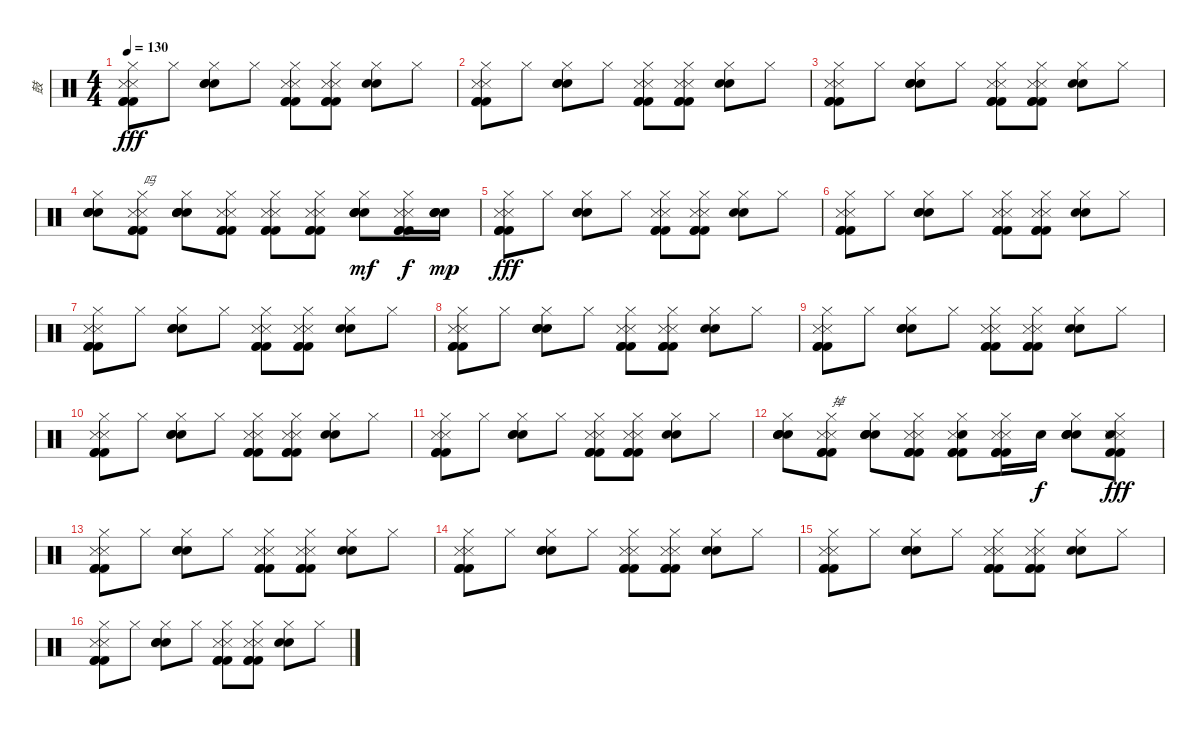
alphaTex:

\track ("鼓" "鼓") {instrument percussion}
\staff {score}
\articulation defaults
\ts (4 4)
\tempo 130
\clef neutral
\ks c
("Metronome (hit)" "Metronome (hit)" "Kick (hit) 2" "Kick (hit) 2" "Kick (hit) 2" "Hi-Hat (closed)").8{dy fff} "Hi-Hat (closed)".8 ("Electric Snare (hit)" "Electric Snare (hit)" "Electric Snare (hit)" "Hi-Hat (closed)").8 "Hi-Hat (closed)".8 ("Metronome (hit)" "Metronome (hit)" "Kick (hit) 2" "Kick (hit) 2" "Kick (hit) 2" "Hi-Hat (closed)").8 ("Metronome (hit)" "Metronome (hit)" "Kick (hit) 2" "Kick (hit) 2" "Kick (hit) 2" "Hi-Hat (closed)").8 ("Electric Snare (hit)" "Electric Snare (hit)" "Hi-Hat (closed)").8 "Hi-Hat (closed)".8 |
("Metronome (hit)" "Metronome (hit)" "Kick (hit) 2" "Kick (hit) 2" "Kick (hit) 2" "Hi-Hat (closed)").8 "Hi-Hat (closed)".8 ("Electric Snare (hit)" "Electric Snare (hit)" "Electric Snare (hit)" "Hi-Hat (closed)").8 "Hi-Hat (closed)".8 ("Metronome (hit)" "Metronome (hit)" "Kick (hit) 2" "Kick (hit) 2" "Kick (hit) 2" "Hi-Hat (closed)").8 ("Metronome (hit)" "Metronome (hit)" "Kick (hit) 2" "Kick (hit) 2" "Kick (hit) 2" "Hi-Hat (closed)").8 ("Electric Snare (hit)" "Electric Snare (hit)" "Hi-Hat (closed)").8 "Hi-Hat (closed)".8 |
("Metronome (hit)" "Metronome (hit)" "Kick (hit) 2" "Kick (hit) 2" "Kick (hit) 2" "Hi-Hat (closed)").8 "Hi-Hat (closed)".8 ("Electric Snare (hit)" "Electric Snare (hit)" "Electric Snare (hit)" "Hi-Hat (closed)").8 "Hi-Hat (closed)".8 ("Metronome (hit)" "Metronome (hit)" "Kick (hit) 2" "Kick (hit) 2" "Kick (hit) 2" "Hi-Hat (closed)").8 ("Metronome (hit)" "Metronome (hit)" "Kick (hit) 2" "Kick (hit) 2" "Kick (hit) 2" "Hi-Hat (closed)").8 ("Electric Snare (hit)" "Electric Snare (hit)" "Hi-Hat (closed)").8 "Hi-Hat (closed)".8 |
("Hand Clap (hit)" "Snare (hit) 2" "Snare (hit) 2" "Snare (hit) 2" "Hi-Hat (closed)").8 ("Metronome (hit)" "Metronome (hit)" "Kick (hit) 2" "Kick (hit) 2" "Kick (hit) 2" "Hi-Hat (closed)").8{txt "吗"} ("Hand Clap (hit)" "Snare (hit) 2" "Snare (hit) 2" "Snare (hit) 2" "Hi-Hat (closed)").8 ("Metronome (hit)" "Metronome (hit)" "Kick (hit) 2" "Kick (hit) 2" "Kick (hit) 2" "Hi-Hat (closed)").8 ("Metronome (hit)" "Metronome (hit)" "Kick (hit) 2" "Kick (hit) 2" "Kick (hit) 2" "Hi-Hat (closed)").8 ("Metronome (hit)" "Metronome (hit)" "Kick (hit) 2" "Kick (hit) 2" "Kick (hit) 2" "Hi-Hat (closed)").8 ("Hand Clap (hit)" "Snare (hit) 2" "Snare (hit) 2" "Snare (hit) 2" "Hi-Hat (closed)").8{dy mf} ("Metronome (hit)" "Metronome (hit)" "Kick (hit) 2" "Kick (hit) 2" "Kick (hit) 2" "Hi-Hat (closed)").16{dy f} ("Hand Clap (hit)" "Snare (hit) 2" "Snare (hit) 2" "Snare (hit) 2").16{dy mp} |
("Metronome (hit)" "Metronome (hit)" "Kick (hit) 2" "Kick (hit) 2" "Kick (hit) 2" "Hi-Hat (closed)").8{dy fff} "Hi-Hat (closed)".8 ("Electric Snare (hit)" "Electric Snare (hit)" "Electric Snare (hit)" "Hi-Hat (closed)").8 "Hi-Hat (closed)".8 ("Metronome (hit)" "Metronome (hit)" "Kick (hit) 2" "Kick (hit) 2" "Kick (hit) 2" "Hi-Hat (closed)").8 ("Metronome (hit)" "Metronome (hit)" "Kick (hit) 2" "Kick (hit) 2" "Kick (hit) 2" "Hi-Hat (closed)").8 ("Electric Snare (hit)" "Electric Snare (hit)" "Hi-Hat (closed)").8 "Hi-Hat (closed)".8 |
("Metronome (hit)" "Metronome (hit)" "Kick (hit) 2" "Kick (hit) 2" "Kick (hit) 2" "Hi-Hat (closed)").8 "Hi-Hat (closed)".8 ("Electric Snare (hit)" "Electric Snare (hit)" "Electric Snare (hit)" "Hi-Hat (closed)").8 "Hi-Hat (closed)".8 ("Metronome (hit)" "Metronome (hit)" "Kick (hit) 2" "Kick (hit) 2" "Kick (hit) 2" "Hi-Hat (closed)").8 ("Metronome (hit)" "Metronome (hit)" "Kick (hit) 2" "Kick (hit) 2" "Kick (hit) 2" "Hi-Hat (closed)").8 ("Electric Snare (hit)" "Electric Snare (hit)" "Hi-Hat (closed)").8 "Hi-Hat (closed)".8 |
("Metronome (hit)" "Metronome (hit)" "Kick (hit) 2" "Kick (hit) 2" "Kick (hit) 2" "Hi-Hat (closed)").8 "Hi-Hat (closed)".8 ("Electric Snare (hit)" "Electric Snare (hit)" "Electric Snare (hit)" "Hi-Hat (closed)").8 "Hi-Hat (closed)".8 ("Metronome (hit)" "Metronome (hit)" "Kick (hit) 2" "Kick (hit) 2" "Kick (hit) 2" "Hi-Hat (closed)").8 ("Metronome (hit)" "Metronome (hit)" "Kick (hit) 2" "Kick (hit) 2" "Kick (hit) 2" "Hi-Hat (closed)").8 ("Electric Snare (hit)" "Electric Snare (hit)" "Hi-Hat (closed)").8 "Hi-Hat (closed)".8 |
("Metronome (hit)" "Metronome (hit)" "Kick (hit) 2" "Kick (hit) 2" "Kick (hit) 2" "Hi-Hat (closed)").8 "Hi-Hat (closed)".8 ("Electric Snare (hit)" "Electric Snare (hit)" "Electric Snare (hit)" "Hi-Hat (closed)").8 "Hi-Hat (closed)".8 ("Metronome (hit)" "Metronome (hit)" "Kick (hit) 2" "Kick (hit) 2" "Kick (hit) 2" "Hi-Hat (closed)").8 ("Metronome (hit)" "Metronome (hit)" "Kick (hit) 2" "Kick (hit) 2" "Kick (hit) 2" "Hi-Hat (closed)").8 ("Electric Snare (hit)" "Electric Snare (hit)" "Hi-Hat (closed)").8 "Hi-Hat (closed)".8 |
("Metronome (hit)" "Metronome (hit)" "Kick (hit) 2" "Kick (hit) 2" "Kick (hit) 2" "Hi-Hat (closed)").8 "Hi-Hat (closed)".8 ("Electric Snare (hit)" "Electric Snare (hit)" "Electric Snare (hit)" "Hi-Hat (closed)").8 "Hi-Hat (closed)".8 ("Metronome (hit)" "Metronome (hit)" "Kick (hit) 2" "Kick (hit) 2" "Kick (hit) 2" "Hi-Hat (closed)").8 ("Metronome (hit)" "Metronome (hit)" "Kick (hit) 2" "Kick (hit) 2" "Kick (hit) 2" "Hi-Hat (closed)").8 ("Electric Snare (hit)" "Electric Snare (hit)" "Hi-Hat (closed)").8 "Hi-Hat (closed)".8 |
("Metronome (hit)" "Metronome (hit)" "Kick (hit) 2" "Kick (hit) 2" "Kick (hit) 2" "Hi-Hat (closed)").8 "Hi-Hat (closed)".8 ("Electric Snare (hit)" "Electric Snare (hit)" "Electric Snare (hit)" "Hi-Hat (closed)").8 "Hi-Hat (closed)".8 ("Metronome (hit)" "Metronome (hit)" "Kick (hit) 2" "Kick (hit) 2" "Kick (hit) 2" "Hi-Hat (closed)").8 ("Metronome (hit)" "Metronome (hit)" "Kick (hit) 2" "Kick (hit) 2" "Kick (hit) 2" "Hi-Hat (closed)").8 ("Electric Snare (hit)" "Electric Snare (hit)" "Hi-Hat (closed)").8 "Hi-Hat (closed)".8 |
("Metronome (hit)" "Metronome (hit)" "Kick (hit) 2" "Kick (hit) 2" "Kick (hit) 2" "Hi-Hat (closed)").8 "Hi-Hat (closed)".8 ("Electric Snare (hit)" "Electric Snare (hit)" "Electric Snare (hit)" "Hi-Hat (closed)").8 "Hi-Hat (closed)".8 ("Metronome (hit)" "Metronome (hit)" "Kick (hit) 2" "Kick (hit) 2" "Kick (hit) 2" "Hi-Hat (closed)").8 ("Metronome (hit)" "Metronome (hit)" "Kick (hit) 2" "Kick (hit) 2" "Kick (hit) 2" "Hi-Hat (closed)").8 ("Electric Snare (hit)" "Electric Snare (hit)" "Hi-Hat (closed)").8 "Hi-Hat (closed)".8 |
("Hand Clap (hit)" "Snare (hit) 2" "Snare (hit) 2" "Snare (hit) 2" "Hi-Hat (closed)").8 ("Metronome (hit)" "Metronome (hit)" "Kick (hit) 2" "Kick (hit) 2" "Kick (hit) 2" "Hi-Hat (closed)").8{txt "掉"} ("Hand Clap (hit)" "Snare (hit) 2" "Snare (hit) 2" "Snare (hit) 2" "Hi-Hat (closed)").8 ("Metronome (hit)" "Metronome (hit)" "Kick (hit) 2" "Kick (hit) 2" "Kick (hit) 2" "Hi-Hat (closed)").8 ("Hand Clap (hit)" "Metronome (hit)" "Kick (hit) 2" "Kick (hit) 2" "Kick (hit) 2" "Hi-Hat (closed)").8 ("Metronome (hit)" "Metronome (hit)" "Kick (hit) 2" "Kick (hit) 2" "Kick (hit) 2" "Hi-Hat (closed)").16 "Hand Clap (hit)".16{dy f} ("Hand Clap (hit)" "Snare (hit) 2" "Snare (hit) 2" "Snare (hit) 2" "Hi-Hat (closed)").8 ("Metronome (hit)" "Metronome (hit)" "Kick (hit) 2" "Kick (hit) 2" "Hand Clap (hit)" "Hi-Hat (closed)").8{dy fff} |
("Metronome (hit)" "Metronome (hit)" "Kick (hit) 2" "Kick (hit) 2" "Kick (hit) 2" "Hi-Hat (closed)").8 "Hi-Hat (closed)".8 ("Electric Snare (hit)" "Electric Snare (hit)" "Electric Snare (hit)" "Hi-Hat (closed)").8 "Hi-Hat (closed)".8 ("Metronome (hit)" "Metronome (hit)" "Kick (hit) 2" "Kick (hit) 2" "Kick (hit) 2" "Hi-Hat (closed)").8 ("Metronome (hit)" "Metronome (hit)" "Kick (hit) 2" "Kick (hit) 2" "Kick (hit) 2" "Hi-Hat (closed)").8 ("Electric Snare (hit)" "Electric Snare (hit)" "Hi-Hat (closed)").8 "Hi-Hat (closed)".8 |
("Metronome (hit)" "Metronome (hit)" "Kick (hit) 2" "Kick (hit) 2" "Kick (hit) 2" "Hi-Hat (closed)").8 "Hi-Hat (closed)".8 ("Electric Snare (hit)" "Electric Snare (hit)" "Electric Snare (hit)" "Hi-Hat (closed)").8 "Hi-Hat (closed)".8 ("Metronome (hit)" "Metronome (hit)" "Kick (hit) 2" "Kick (hit) 2" "Kick (hit) 2" "Hi-Hat (closed)").8 ("Metronome (hit)" "Metronome (hit)" "Kick (hit) 2" "Kick (hit) 2" "Kick (hit) 2" "Hi-Hat (closed)").8 ("Electric Snare (hit)" "Electric Snare (hit)" "Hi-Hat (closed)").8 "Hi-Hat (closed)".8 |
("Metronome (hit)" "Metronome (hit)" "Kick (hit) 2" "Kick (hit) 2" "Kick (hit) 2" "Hi-Hat (closed)").8 "Hi-Hat (closed)".8 ("Electric Snare (hit)" "Electric Snare (hit)" "Electric Snare (hit)" "Hi-Hat (closed)").8 "Hi-Hat (closed)".8 ("Metronome (hit)" "Metronome (hit)" "Kick (hit) 2" "Kick (hit) 2" "Kick (hit) 2" "Hi-Hat (closed)").8 ("Metronome (hit)" "Metronome (hit)" "Kick (hit) 2" "Kick (hit) 2" "Kick (hit) 2" "Hi-Hat (closed)").8 ("Electric Snare (hit)" "Electric Snare (hit)" "Hi-Hat (closed)").8 "Hi-Hat (closed)".8 |
("Metronome (hit)" "Metronome (hit)" "Kick (hit) 2" "Kick (hit) 2" "Kick (hit) 2" "Hi-Hat (closed)").8 "Hi-Hat (closed)".8 ("Electric Snare (hit)" "Electric Snare (hit)" "Electric Snare (hit)" "Hi-Hat (closed)").8 "Hi-Hat (closed)".8 ("Metronome (hit)" "Metronome (hit)" "Kick (hit) 2" "Kick (hit) 2" "Kick (hit) 2" "Hi-Hat (closed)").8 ("Metronome (hit)" "Metronome (hit)" "Kick (hit) 2" "Kick (hit) 2" "Kick (hit) 2" "Hi-Hat (closed)").8 ("Electric Snare (hit)" "Electric Snare (hit)" "Hi-Hat (closed)").8 "Hi-Hat (closed)".8
